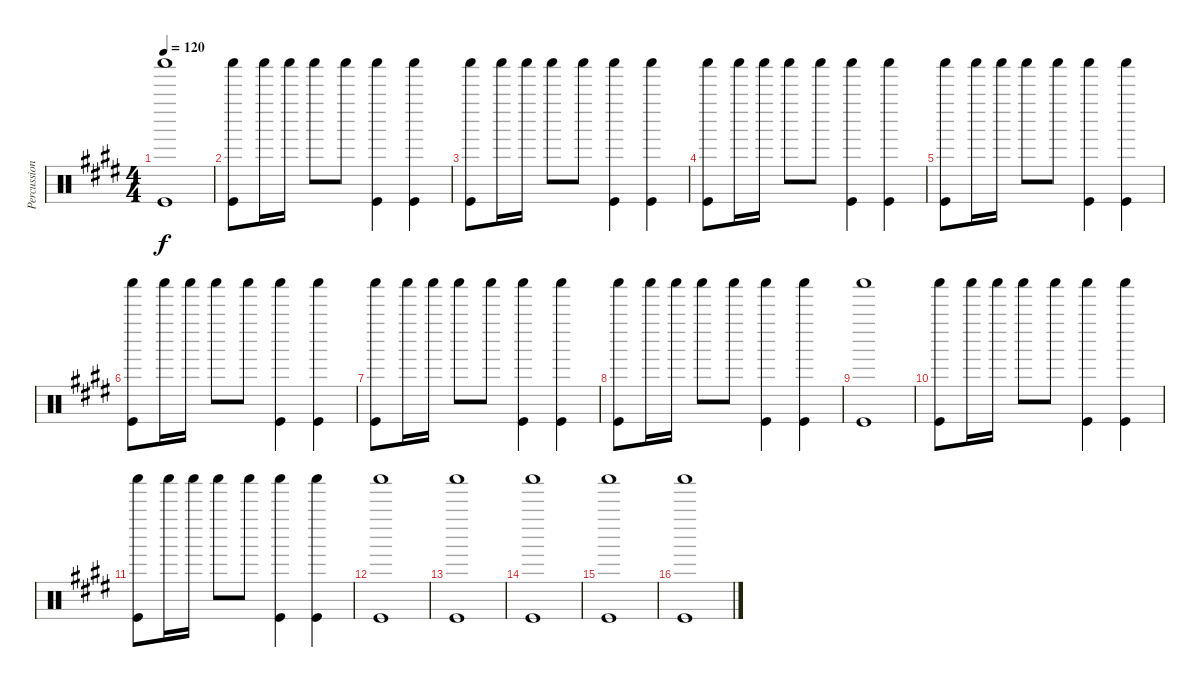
\track ("Percussions" "Percussion") {instrument percussion}
\staff {score}
\articulation defaults
\ts (4 4)
\tempo 120
\clef neutral
\ks e
("Shaker (hit)" "Kick (hit)").1{dy f} |
("Shaker (hit)" "Kick (hit)").8 "Shaker (hit)".16 "Shaker (hit)".16 "Shaker (hit)".8 "Shaker (hit)".8 ("Shaker (hit)" "Kick (hit)").4 ("Shaker (hit)" "Kick (hit)").4 |
("Shaker (hit)" "Kick (hit)").8 "Shaker (hit)".16 "Shaker (hit)".16 "Shaker (hit)".8 "Shaker (hit)".8 ("Shaker (hit)" "Kick (hit)").4 ("Shaker (hit)" "Kick (hit)").4 |
("Shaker (hit)" "Kick (hit)").8 "Shaker (hit)".16 "Shaker (hit)".16 "Shaker (hit)".8 "Shaker (hit)".8 ("Shaker (hit)" "Kick (hit)").4 ("Shaker (hit)" "Kick (hit)").4 |
("Shaker (hit)" "Kick (hit)").8 "Shaker (hit)".16 "Shaker (hit)".16 "Shaker (hit)".8 "Shaker (hit)".8 ("Shaker (hit)" "Kick (hit)").4 ("Shaker (hit)" "Kick (hit)").4 |
("Shaker (hit)" "Kick (hit)").8 "Shaker (hit)".16 "Shaker (hit)".16 "Shaker (hit)".8 "Shaker (hit)".8 ("Shaker (hit)" "Kick (hit)").4 ("Shaker (hit)" "Kick (hit)").4 |
("Shaker (hit)" "Kick (hit)").8 "Shaker (hit)".16 "Shaker (hit)".16 "Shaker (hit)".8 "Shaker (hit)".8 ("Shaker (hit)" "Kick (hit)").4 ("Shaker (hit)" "Kick (hit)").4 |
("Shaker (hit)" "Kick (hit)").8 "Shaker (hit)".16 "Shaker (hit)".16 "Shaker (hit)".8 "Shaker (hit)".8 ("Shaker (hit)" "Kick (hit)").4 ("Shaker (hit)" "Kick (hit)").4 |
("Shaker (hit)" "Kick (hit)").1 |
("Shaker (hit)" "Kick (hit)").8 "Shaker (hit)".16 "Shaker (hit)".16 "Shaker (hit)".8 "Shaker (hit)".8 ("Shaker (hit)" "Kick (hit)").4 ("Shaker (hit)" "Kick (hit)").4 |
("Shaker (hit)" "Kick (hit)").8 "Shaker (hit)".16 "Shaker (hit)".16 "Shaker (hit)".8 "Shaker (hit)".8 ("Shaker (hit)" "Kick (hit)").4 ("Shaker (hit)" "Kick (hit)").4 |
("Shaker (hit)" "Kick (hit)").1 |
("Shaker (hit)" "Kick (hit)").1 |
("Shaker (hit)" "Kick (hit)").1 |
("Shaker (hit)" "Kick (hit)").1 |
("Shaker (hit)" "Kick (hit)").1
